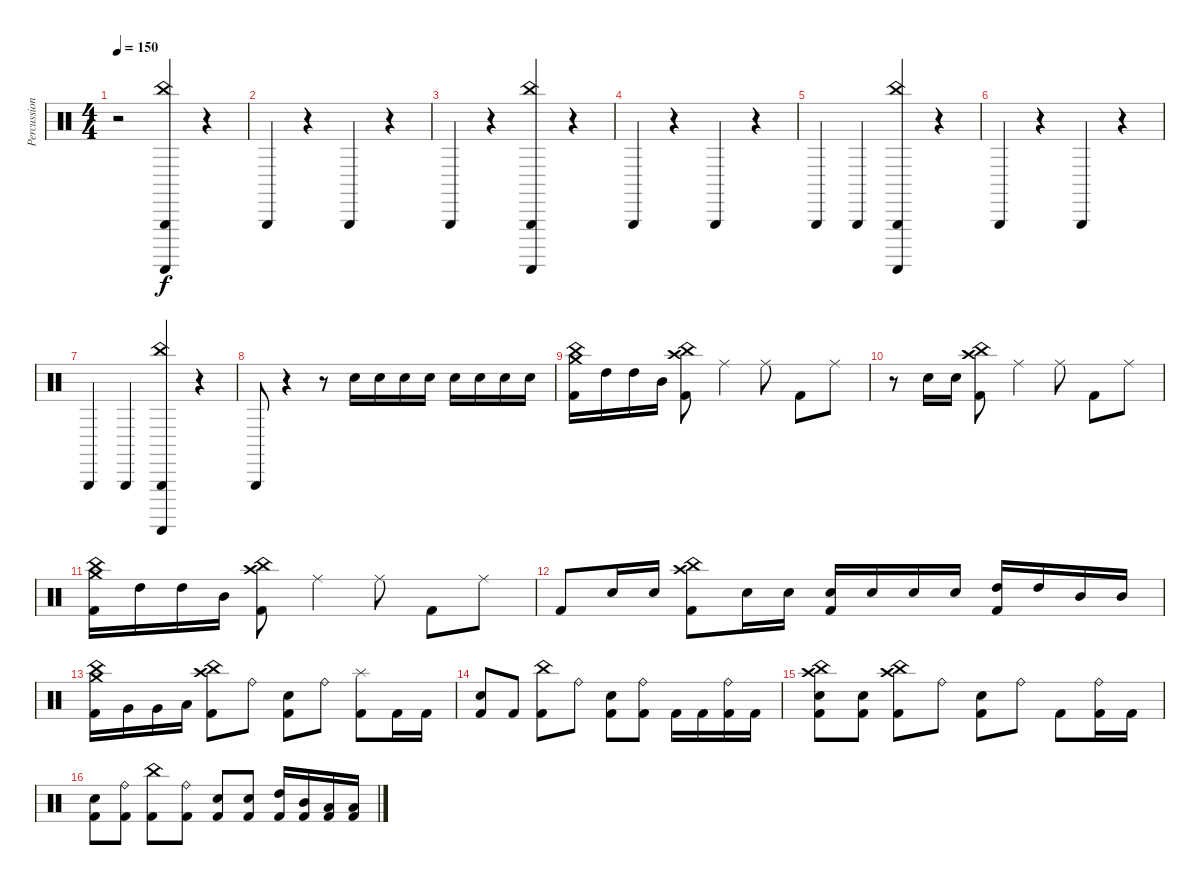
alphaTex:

\track ("Percussion" "Percussion") {instrument percussion}
\staff {score}
\articulation defaults
\ts (4 4)
\tempo 150
\clef neutral
\ks c
r.2{dy f} ("China (hit)" "Guiro (scrap-return)" "Triangle (hit)").4 r.4 |
"Triangle (hit)".4 r.4 "Triangle (hit)".4 r.4 |
"Triangle (hit)".4 r.4 ("China (hit)" "Guiro (scrap-return)" "Triangle (hit)").4 r.4 |
"Triangle (hit)".4 r.4 "Triangle (hit)".4 r.4 |
"Triangle (hit)".4 "Triangle (hit)".4 ("China (hit)" "Guiro (scrap-return)" "Triangle (hit)").4 r.4 |
"Triangle (hit)".4 r.4 "Triangle (hit)".4 r.4 |
"Triangle (hit)".4 "Triangle (hit)".4 ("China (hit)" "Guiro (scrap-return)" "Triangle (hit)").4 r.4 |
"Triangle (hit)".8 r.4 r.8 "Electric Snare (hit)".16 "Electric Snare (hit)".16 "Electric Snare (hit)".16 "Electric Snare (hit)".16 "Electric Snare (hit)".16 "Electric Snare (hit)".16 "Electric Snare (hit)".16 "Electric Snare (hit)".16 |
("China (hit)" "Crash medium (hit)" "Kick (hit) 2").16 "High Tom (hit)".16 "High Tom (hit)".16 "Mid Tom (hit)".16 ("China (hit)" "Crash high (hit)" "Kick (hit) 2").8 "Ride (middle)".4 "Ride (middle)".8 "Kick (hit) 2".8 "Ride (middle)".8 |
r.8 "Electric Snare (hit)".16 "Electric Snare (hit)".16 ("China (hit)" "Crash high (hit)" "Kick (hit) 2").8 "Ride (middle)".4 "Ride (middle)".8 "Kick (hit) 2".8 "Ride (middle)".8 |
("China (hit)" "Crash medium (hit)" "Kick (hit) 2").16 "High Tom (hit)".16 "High Tom (hit)".16 "Mid Tom (hit)".16 ("China (hit)" "Crash high (hit)" "Kick (hit) 2").8 "Ride (middle)".4 "Ride (middle)".8 "Kick (hit) 2".8 "Ride (middle)".8 |
"Kick (hit) 2".8 "Electric Snare (hit)".16 "Electric Snare (hit)".16 ("China (hit)" "Crash high (hit)" "Kick (hit) 2").8 "Electric Snare (hit)".16 "Electric Snare (hit)".16 ("Electric Snare (hit)" "Kick (hit) 2").16 "Electric Snare (hit)".16 "Electric Snare (hit)".16 "Electric Snare (hit)".16 ("High Tom (hit)" "Kick (hit) 2").16 "High Tom (hit)".16 "Mid Tom (hit)".16 "Mid Tom (hit)".16 |
("China (hit)" "Crash medium (hit)" "Kick (hit) 2").16 "Very Low Tom (hit)".16 "Very Low Tom (hit)".16 "Low Tom (hit)".16 ("China (hit)" "Crash high (hit)" "Kick (hit) 2").8 "Ride (bell)".8 ("Electric Snare (hit)" "Kick (hit) 2").8 "Ride (bell)".8 ("Splash (hit)" "Kick (hit) 2").8 "Kick (hit) 2".16 "Kick (hit) 2".16 |
("Electric Snare (hit)" "Kick (hit) 2").8 "Kick (hit) 2".8 ("China (hit)" "Kick (hit) 2").8 "Ride (bell)".8 ("Electric Snare (hit)" "Kick (hit) 2").8 ("Ride (bell)" "Kick (hit) 2").8 "Kick (hit) 2".16 "Kick (hit) 2".16 ("Ride (bell)" "Kick (hit) 2").16 "Kick (hit) 2".16 |
("China (hit)" "Crash high (hit)" "Electric Snare (hit)" "Kick (hit) 2").8 ("Electric Snare (hit)" "Kick (hit) 2").8 ("China (hit)" "Crash high (hit)" "Kick (hit) 2").8 "Ride (bell)".8 ("Electric Snare (hit)" "Kick (hit) 2").8 "Ride (bell)".8 "Kick (hit) 2".8 ("Ride (bell)" "Kick (hit) 2").16 "Kick (hit) 2".16 |
("Electric Snare (hit)" "Kick (hit) 2").8 ("Ride (bell)" "Kick (hit) 2").8 ("China (hit)" "Kick (hit) 2").8 ("Ride (bell)" "Kick (hit) 2").8 ("Electric Snare (hit)" "Kick (hit) 2").8 ("Electric Snare (hit)" "Kick (hit) 2").8 ("High Tom (hit)" "Kick (hit) 2").16 ("Mid Tom (hit)" "Kick (hit) 2").16 ("Low Tom (hit)" "Kick (hit) 2").16 ("Low Tom (hit)" "Kick (hit) 2").16
